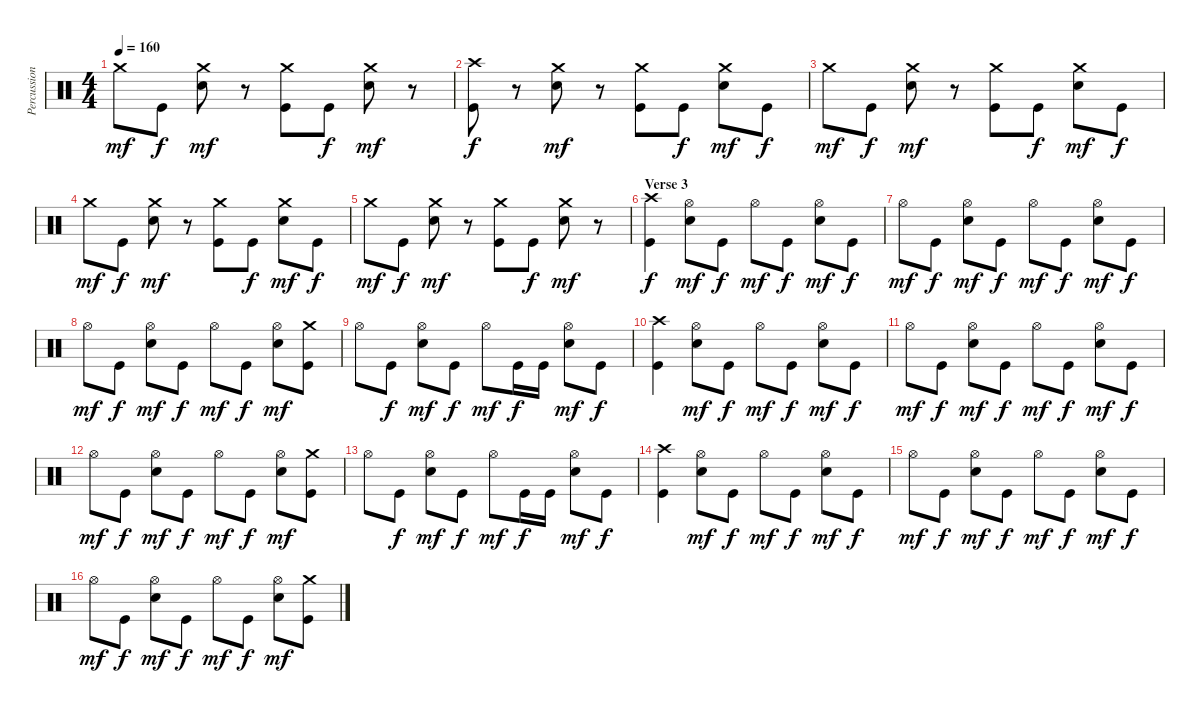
\track ("Percussion" "Percussion") {instrument percussion}
\staff {score}
\articulation defaults
\ts (4 4)
\tempo 160
\clef neutral
\ks c "Crash medium (hit)".8{dy mf} "Kick (hit)".8{dy f}
("Electric Snare (hit)" "Crash medium (hit)").8{dy mf} r.8 ("Kick (hit)" "Crash medium (hit)").8 "Kick (hit)".8{dy f} ("Electric Snare (hit)" "Crash medium (hit)").8{dy mf} r.8 |
("Kick (hit)" "Crash high (hit)").8{dy f} r.8 ("Electric Snare (hit)" "Crash medium (hit)").8{dy mf} r.8 ("Kick (hit)" "Crash medium (hit)").8 "Kick (hit)".8{dy f} ("Electric Snare (hit)" "Crash medium (hit)").8{dy mf} "Kick (hit)".8{dy f} |
"Crash medium (hit)".8{dy mf} "Kick (hit)".8{dy f} ("Electric Snare (hit)" "Crash medium (hit)").8{dy mf} r.8 ("Kick (hit)" "Crash medium (hit)").8 "Kick (hit)".8{dy f} ("Electric Snare (hit)" "Crash medium (hit)").8{dy mf} "Kick (hit)".8{dy f} |
"Crash medium (hit)".8{dy mf} "Kick (hit)".8{dy f} ("Electric Snare (hit)" "Crash medium (hit)").8{dy mf} r.8 ("Kick (hit)" "Crash medium (hit)").8 "Kick (hit)".8{dy f} ("Electric Snare (hit)" "Crash medium (hit)").8{dy mf} "Kick (hit)".8{dy f} |
"Crash medium (hit)".8{dy mf} "Kick (hit)".8{dy f} ("Electric Snare (hit)" "Crash medium (hit)").8{dy mf} r.8 ("Kick (hit)" "Crash medium (hit)").8 "Kick (hit)".8{dy f} ("Electric Snare (hit)" "Crash medium (hit)").8{dy mf} r.8 |
\section ("" "Verse 3")
("Kick (hit)" "Crash high (hit)").4{dy f} ("Electric Snare (hit)" "Hi-Hat (open)").8{dy mf} "Kick (hit)".8{dy f} "Hi-Hat (open)".8{dy mf} "Kick (hit)".8{dy f} ("Electric Snare (hit)" "Hi-Hat (open)").8{dy mf} "Kick (hit)".8{dy f} |
"Hi-Hat (open)".8{dy mf} "Kick (hit)".8{dy f} ("Electric Snare (hit)" "Hi-Hat (open)").8{dy mf} "Kick (hit)".8{dy f} "Hi-Hat (open)".8{dy mf} "Kick (hit)".8{dy f} ("Electric Snare (hit)" "Hi-Hat (open)").8{dy mf} "Kick (hit)".8{dy f} |
"Hi-Hat (open)".8{dy mf} "Kick (hit)".8{dy f} ("Electric Snare (hit)" "Hi-Hat (open)").8{dy mf} "Kick (hit)".8{dy f} "Hi-Hat (open)".8{dy mf} "Kick (hit)".8{dy f} ("Electric Snare (hit)" "Hi-Hat (open)").8{dy mf} ("Kick (hit)" "Crash medium (hit)").8 |
"Hi-Hat (open)".8 "Kick (hit)".8{dy f} ("Electric Snare (hit)" "Hi-Hat (open)").8{dy mf} "Kick (hit)".8{dy f} "Hi-Hat (open)".8{dy mf} "Kick (hit)".16{dy f} "Kick (hit)".16 ("Electric Snare (hit)" "Hi-Hat (open)").8{dy mf} "Kick (hit)".8{dy f} |
("Kick (hit)" "Crash high (hit)").4 ("Electric Snare (hit)" "Hi-Hat (open)").8{dy mf} "Kick (hit)".8{dy f} "Hi-Hat (open)".8{dy mf} "Kick (hit)".8{dy f} ("Electric Snare (hit)" "Hi-Hat (open)").8{dy mf} "Kick (hit)".8{dy f} |
"Hi-Hat (open)".8{dy mf} "Kick (hit)".8{dy f} ("Electric Snare (hit)" "Hi-Hat (open)").8{dy mf} "Kick (hit)".8{dy f} "Hi-Hat (open)".8{dy mf} "Kick (hit)".8{dy f} ("Electric Snare (hit)" "Hi-Hat (open)").8{dy mf} "Kick (hit)".8{dy f} |
"Hi-Hat (open)".8{dy mf} "Kick (hit)".8{dy f} ("Electric Snare (hit)" "Hi-Hat (open)").8{dy mf} "Kick (hit)".8{dy f} "Hi-Hat (open)".8{dy mf} "Kick (hit)".8{dy f} ("Electric Snare (hit)" "Hi-Hat (open)").8{dy mf} ("Kick (hit)" "Crash medium (hit)").8 |
"Hi-Hat (open)".8 "Kick (hit)".8{dy f} ("Electric Snare (hit)" "Hi-Hat (open)").8{dy mf} "Kick (hit)".8{dy f} "Hi-Hat (open)".8{dy mf} "Kick (hit)".16{dy f} "Kick (hit)".16 ("Electric Snare (hit)" "Hi-Hat (open)").8{dy mf} "Kick (hit)".8{dy f} |
("Kick (hit)" "Crash high (hit)").4 ("Electric Snare (hit)" "Hi-Hat (open)").8{dy mf} "Kick (hit)".8{dy f} "Hi-Hat (open)".8{dy mf} "Kick (hit)".8{dy f} ("Electric Snare (hit)" "Hi-Hat (open)").8{dy mf} "Kick (hit)".8{dy f} |
"Hi-Hat (open)".8{dy mf} "Kick (hit)".8{dy f} ("Electric Snare (hit)" "Hi-Hat (open)").8{dy mf} "Kick (hit)".8{dy f} "Hi-Hat (open)".8{dy mf} "Kick (hit)".8{dy f} ("Electric Snare (hit)" "Hi-Hat (open)").8{dy mf} "Kick (hit)".8{dy f} |
"Hi-Hat (open)".8{dy mf} "Kick (hit)".8{dy f} ("Electric Snare (hit)" "Hi-Hat (open)").8{dy mf} "Kick (hit)".8{dy f} "Hi-Hat (open)".8{dy mf} "Kick (hit)".8{dy f} ("Electric Snare (hit)" "Hi-Hat (open)").8{dy mf} ("Kick (hit)" "Crash medium (hit)").8
